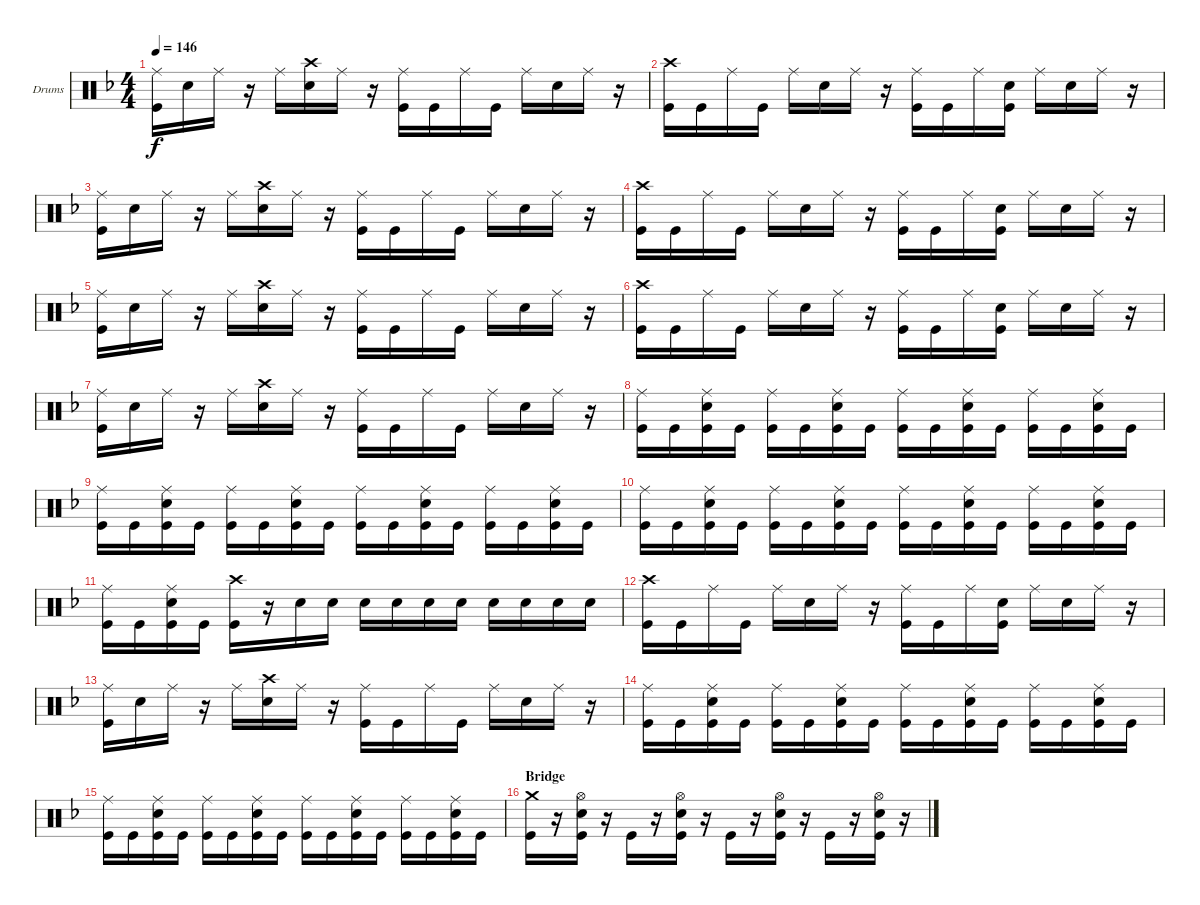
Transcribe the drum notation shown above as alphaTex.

\defaultSystemsLayout 4
\bracketExtendMode groupsimilarinstruments
\firstSystemTrackNameOrientation horizontal
\otherSystemsTrackNameOrientation horizontal
\track ("Gar Samuelson (Drums)" "Drums") {instrument percussion}
\staff {score}
\articulation defaults
\ts (4 4)
\tempo 146
\clef neutral
\scale
0.333333
\ks dminor
("Ride (middle)" "Kick (hit)").16{dy f} "Snare (hit) 2".16 "Ride (middle)".16 r.16 "Ride (middle)".16 ("Crash high (hit)" "Snare (hit) 2").16 "Ride (middle)".16 r.16 ("Ride (middle)" "Kick (hit)").16 "Kick (hit)".16 "Ride (middle)".16 "Kick (hit)".16 "Ride (middle)".16 "Snare (hit) 2".16 "Ride (middle)".16 r.16 |
\scale
0.333333 ("Crash high (hit)" "Kick (hit)").16 "Kick (hit)".16 "Ride (middle)".16 "Kick (hit)".16 "Ride (middle)".16 "Snare (hit) 2".16 "Ride (middle)".16 r.16 ("Ride (middle)" "Kick (hit)").16 "Kick (hit)".16 "Ride (middle)".16 ("Snare (hit) 2" "Kick (hit)").16 "Ride (middle)".16 "Snare (hit) 2".16 "Ride (middle)".16 r.16 |
\scale
0.333333 ("Ride (middle)" "Kick (hit)").16 "Snare (hit) 2".16 "Ride (middle)".16 r.16 "Ride (middle)".16 ("Crash high (hit)" "Snare (hit) 2").16 "Ride (middle)".16 r.16 ("Ride (middle)" "Kick (hit)").16 "Kick (hit)".16 "Ride (middle)".16 "Kick (hit)".16 "Ride (middle)".16 "Snare (hit) 2".16 "Ride (middle)".16 r.16 |
\scale
0.333333 ("Crash high (hit)" "Kick (hit)").16 "Kick (hit)".16 "Ride (middle)".16 "Kick (hit)".16 "Ride (middle)".16 "Snare (hit) 2".16 "Ride (middle)".16 r.16 ("Ride (middle)" "Kick (hit)").16 "Kick (hit)".16 "Ride (middle)".16 ("Snare (hit) 2" "Kick (hit)").16 "Ride (middle)".16 "Snare (hit) 2".16 "Ride (middle)".16 r.16 |
\scale
0.333333 ("Ride (middle)" "Kick (hit)").16 "Snare (hit) 2".16 "Ride (middle)".16 r.16 "Ride (middle)".16 ("Crash high (hit)" "Snare (hit) 2").16 "Ride (middle)".16 r.16 ("Ride (middle)" "Kick (hit)").16 "Kick (hit)".16 "Ride (middle)".16 "Kick (hit)".16 "Ride (middle)".16 "Snare (hit) 2".16 "Ride (middle)".16 r.16 |
\scale
0.333333 ("Crash high (hit)" "Kick (hit)").16 "Kick (hit)".16 "Ride (middle)".16 "Kick (hit)".16 "Ride (middle)".16 "Snare (hit) 2".16 "Ride (middle)".16 r.16 ("Ride (middle)" "Kick (hit)").16 "Kick (hit)".16 "Ride (middle)".16 ("Snare (hit) 2" "Kick (hit)").16 "Ride (middle)".16 "Snare (hit) 2".16 "Ride (middle)".16 r.16 |
\scale
0.333333 ("Ride (middle)" "Kick (hit)").16 "Snare (hit) 2".16 "Ride (middle)".16 r.16 "Ride (middle)".16 ("Crash high (hit)" "Snare (hit) 2").16 "Ride (middle)".16 r.16 ("Ride (middle)" "Kick (hit)").16 "Kick (hit)".16 "Ride (middle)".16 "Kick (hit)".16 "Ride (middle)".16 "Snare (hit) 2".16 "Ride (middle)".16 r.16 |
\scale
0.333333 ("Ride (middle)" "Kick (hit)").16 "Kick (hit)".16 ("Ride (middle)" "Snare (hit) 2" "Kick (hit)").16 "Kick (hit)".16 ("Ride (middle)" "Kick (hit)").16 "Kick (hit)".16 ("Ride (middle)" "Snare (hit) 2" "Kick (hit)").16 "Kick (hit)".16 ("Ride (middle)" "Kick (hit)").16 "Kick (hit)".16 ("Ride (middle)" "Snare (hit) 2" "Kick (hit)").16 "Kick (hit)".16 ("Ride (middle)" "Kick (hit)").16 "Kick (hit)".16 ("Ride (middle)" "Snare (hit) 2" "Kick (hit)").16 "Kick (hit)".16 |
\scale
0.333333 ("Ride (middle)" "Kick (hit)").16 "Kick (hit)".16 ("Ride (middle)" "Snare (hit) 2" "Kick (hit)").16 "Kick (hit)".16 ("Ride (middle)" "Kick (hit)").16 "Kick (hit)".16 ("Ride (middle)" "Snare (hit) 2" "Kick (hit)").16 "Kick (hit)".16 ("Ride (middle)" "Kick (hit)").16 "Kick (hit)".16 ("Ride (middle)" "Snare (hit) 2" "Kick (hit)").16 "Kick (hit)".16 ("Ride (middle)" "Kick (hit)").16 "Kick (hit)".16 ("Ride (middle)" "Snare (hit) 2" "Kick (hit)").16 "Kick (hit)".16 |
\scale
0.333333 ("Ride (middle)" "Kick (hit)").16 "Kick (hit)".16 ("Ride (middle)" "Snare (hit) 2" "Kick (hit)").16 "Kick (hit)".16 ("Ride (middle)" "Kick (hit)").16 "Kick (hit)".16 ("Ride (middle)" "Snare (hit) 2" "Kick (hit)").16 "Kick (hit)".16 ("Ride (middle)" "Kick (hit)").16 "Kick (hit)".16 ("Ride (middle)" "Snare (hit) 2" "Kick (hit)").16 "Kick (hit)".16 ("Ride (middle)" "Kick (hit)").16 "Kick (hit)".16 ("Ride (middle)" "Snare (hit) 2" "Kick (hit)").16 "Kick (hit)".16 |
\scale
0.333333 ("Ride (middle)" "Kick (hit)").16 "Kick (hit)".16 ("Ride (middle)" "Snare (hit) 2" "Kick (hit)").16 "Kick (hit)".16 ("Crash high (hit)" "Kick (hit)").16 r.16 "Snare (hit) 2".16 "Snare (hit) 2".16 "Snare (hit) 2".16 "Snare (hit) 2".16 "Snare (hit) 2".16 "Snare (hit) 2".16 "Snare (hit) 2".16 "Snare (hit) 2".16 "Snare (hit) 2".16 "Snare (hit) 2".16 |
\scale
0.333333 ("Crash high (hit)" "Kick (hit)").16 "Kick (hit)".16 "Ride (middle)".16 "Kick (hit)".16 "Ride (middle)".16 "Snare (hit) 2".16 "Ride (middle)".16 r.16 ("Ride (middle)" "Kick (hit)").16 "Kick (hit)".16 "Ride (middle)".16 ("Snare (hit) 2" "Kick (hit)").16 "Ride (middle)".16 "Snare (hit) 2".16 "Ride (middle)".16 r.16 |
\scale
0.333333 ("Ride (middle)" "Kick (hit)").16 "Snare (hit) 2".16 "Ride (middle)".16 r.16 "Ride (middle)".16 ("Crash high (hit)" "Snare (hit) 2").16 "Ride (middle)".16 r.16 ("Ride (middle)" "Kick (hit)").16 "Kick (hit)".16 "Ride (middle)".16 "Kick (hit)".16 "Ride (middle)".16 "Snare (hit) 2".16 "Ride (middle)".16 r.16 |
\scale
0.333333 ("Ride (middle)" "Kick (hit)").16 "Kick (hit)".16 ("Ride (middle)" "Snare (hit) 2" "Kick (hit)").16 "Kick (hit)".16 ("Ride (middle)" "Kick (hit)").16 "Kick (hit)".16 ("Ride (middle)" "Snare (hit) 2" "Kick (hit)").16 "Kick (hit)".16 ("Ride (middle)" "Kick (hit)").16 "Kick (hit)".16 ("Ride (middle)" "Snare (hit) 2" "Kick (hit)").16 "Kick (hit)".16 ("Ride (middle)" "Kick (hit)").16 "Kick (hit)".16 ("Ride (middle)" "Snare (hit) 2" "Kick (hit)").16 "Kick (hit)".16 |
\scale
0.333333 ("Ride (middle)" "Kick (hit)").16 "Kick (hit)".16 ("Ride (middle)" "Snare (hit) 2" "Kick (hit)").16 "Kick (hit)".16 ("Ride (middle)" "Kick (hit)").16 "Kick (hit)".16 ("Ride (middle)" "Snare (hit) 2" "Kick (hit)").16 "Kick (hit)".16 ("Ride (middle)" "Kick (hit)").16 "Kick (hit)".16 ("Ride (middle)" "Snare (hit) 2" "Kick (hit)").16 "Kick (hit)".16 ("Ride (middle)" "Kick (hit)").16 "Kick (hit)".16 ("Ride (middle)" "Snare (hit) 2" "Kick (hit)").16 "Kick (hit)".16 |
\section ("" "Bridge")
\scale
0.333333 ("Crash medium (hit)" "Kick (hit)").16 r.16 ("Hi-Hat (open)" "Snare (hit) 2" "Kick (hit)").16 r.16 "Kick (hit)".16 r.16 ("Hi-Hat (open)" "Snare (hit) 2" "Kick (hit)").16 r.16 "Kick (hit)".16 r.16 ("Hi-Hat (open)" "Snare (hit) 2" "Kick (hit)").16 r.16 "Kick (hit)".16 r.16 ("Hi-Hat (open)" "Snare (hit) 2" "Kick (hit)").16 r.16
